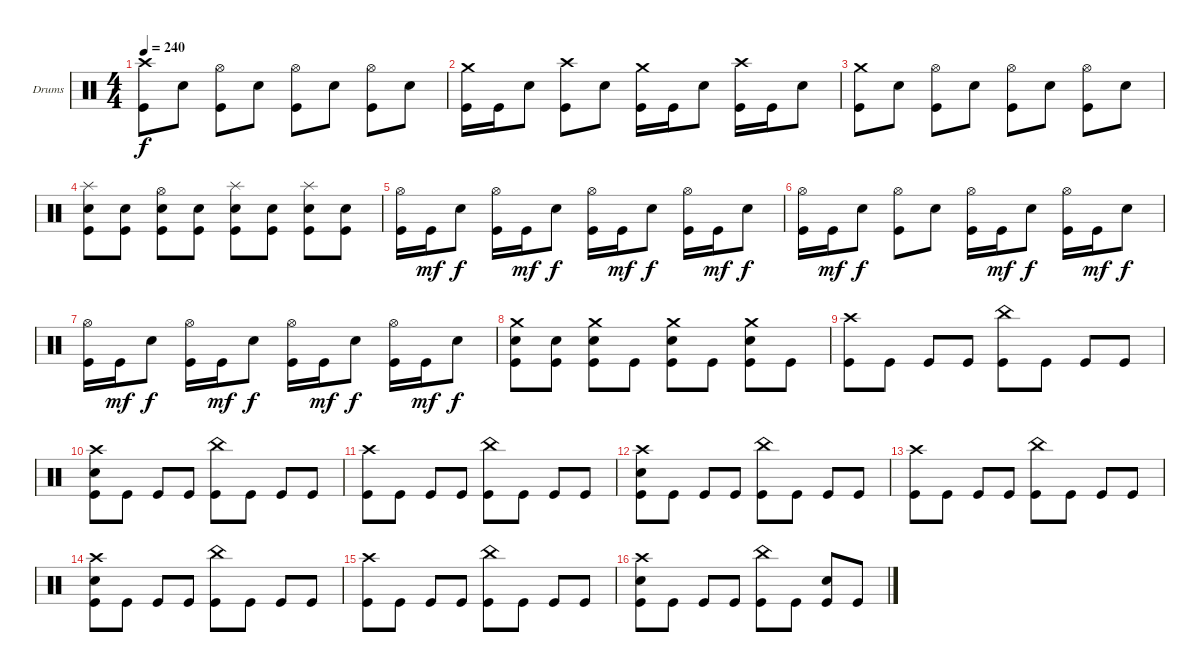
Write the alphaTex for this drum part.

\bracketExtendMode groupsimilarinstruments
\firstSystemTrackNameOrientation horizontal
\otherSystemsTrackNameOrientation horizontal
\track ("Drumkit" "Drums") {instrument percussion}
\staff {score}
\articulation defaults
\ts (4 4)
\tempo 240
\clef neutral
\ks c
("Crash high (hit)" "Kick (hit)").8{dy f} "Snare (hit) 2".8 ("Hi-Hat (open)" "Kick (hit)").8 "Snare (hit) 2".8 ("Hi-Hat (open)" "Kick (hit)").8 "Snare (hit) 2".8 ("Hi-Hat (open)" "Kick (hit)").8 "Snare (hit) 2".8 |
("Crash medium (hit)" "Kick (hit)").16 "Kick (hit)".16 "Snare (hit) 2".8 ("Crash high (hit)" "Kick (hit)").8 "Snare (hit) 2".8 ("Crash medium (hit)" "Kick (hit)").16 "Kick (hit)".16 "Snare (hit) 2".8 ("Crash high (hit)" "Kick (hit)").16 "Kick (hit)".16 "Snare (hit) 2".8 |
("Crash medium (hit)" "Kick (hit)").8 "Snare (hit) 2".8 ("Hi-Hat (open)" "Kick (hit)").8 "Snare (hit) 2".8 ("Hi-Hat (open)" "Kick (hit)").8 "Snare (hit) 2".8 ("Hi-Hat (open)" "Kick (hit)").8 "Snare (hit) 2".8 |
("Splash (hit)" "Snare (hit) 2" "Kick (hit)").8 ("Snare (hit) 2" "Kick (hit)").8 ("Hi-Hat (open)" "Snare (hit) 2" "Kick (hit)").8 ("Snare (hit) 2" "Kick (hit)").8 ("Splash (hit)" "Snare (hit) 2" "Kick (hit)").8 ("Snare (hit) 2" "Kick (hit)").8 ("Splash (hit)" "Snare (hit) 2" "Kick (hit)").8 ("Snare (hit) 2" "Kick (hit)").8 |
("Hi-Hat (open)" "Kick (hit)").16 "Kick (hit)".16{dy mf} "Snare (hit) 2".8{dy f} ("Hi-Hat (open)" "Kick (hit)").16 "Kick (hit)".16{dy mf} "Snare (hit) 2".8{dy f} ("Hi-Hat (open)" "Kick (hit)").16 "Kick (hit)".16{dy mf} "Snare (hit) 2".8{dy f} ("Hi-Hat (open)" "Kick (hit)").16 "Kick (hit)".16{dy mf} "Snare (hit) 2".8{dy f} |
("Hi-Hat (open)" "Kick (hit)").16 "Kick (hit)".16{dy mf} "Snare (hit) 2".8{dy f} ("Hi-Hat (open)" "Kick (hit)").8 "Snare (hit) 2".8 ("Hi-Hat (open)" "Kick (hit)").16 "Kick (hit)".16{dy mf} "Snare (hit) 2".8{dy f} ("Hi-Hat (open)" "Kick (hit)").16 "Kick (hit)".16{dy mf} "Snare (hit) 2".8{dy f} |
("Hi-Hat (open)" "Kick (hit)").16 "Kick (hit)".16{dy mf} "Snare (hit) 2".8{dy f} ("Hi-Hat (open)" "Kick (hit)").16 "Kick (hit)".16{dy mf} "Snare (hit) 2".8{dy f} ("Hi-Hat (open)" "Kick (hit)").16 "Kick (hit)".16{dy mf} "Snare (hit) 2".8{dy f} ("Hi-Hat (open)" "Kick (hit)").16 "Kick (hit)".16{dy mf} "Snare (hit) 2".8{dy f} |
("Crash medium (hit)" "Snare (hit) 2" "Kick (hit)").8 ("Snare (hit) 2" "Kick (hit)").8 ("Crash medium (hit)" "Snare (hit) 2" "Kick (hit)").8 "Kick (hit)".8 ("Crash medium (hit)" "Snare (hit) 2" "Kick (hit)").8 "Kick (hit)".8 ("Crash medium (hit)" "Snare (hit) 2" "Kick (hit)").8 "Kick (hit)".8 |
("Crash high (hit)" "Kick (hit)").8 "Kick (hit)".8 "Kick (hit)".8 "Kick (hit)".8 ("China (hit)" "Kick (hit)").8 "Kick (hit)".8 "Kick (hit)".8 "Kick (hit)".8 |
("Crash high (hit)" "Snare (hit) 2" "Kick (hit)").8 "Kick (hit)".8 "Kick (hit)".8 "Kick (hit)".8 ("China (hit)" "Kick (hit)").8 "Kick (hit)".8 "Kick (hit)".8 "Kick (hit)".8 |
("Crash high (hit)" "Kick (hit)").8 "Kick (hit)".8 "Kick (hit)".8 "Kick (hit)".8 ("China (hit)" "Kick (hit)").8 "Kick (hit)".8 "Kick (hit)".8 "Kick (hit)".8 |
("Crash high (hit)" "Snare (hit) 2" "Kick (hit)").8 "Kick (hit)".8 "Kick (hit)".8 "Kick (hit)".8 ("China (hit)" "Kick (hit)").8 "Kick (hit)".8 "Kick (hit)".8 "Kick (hit)".8 |
("Crash high (hit)" "Kick (hit)").8 "Kick (hit)".8 "Kick (hit)".8 "Kick (hit)".8 ("China (hit)" "Kick (hit)").8 "Kick (hit)".8 "Kick (hit)".8 "Kick (hit)".8 |
("Crash high (hit)" "Snare (hit) 2" "Kick (hit)").8 "Kick (hit)".8 "Kick (hit)".8 "Kick (hit)".8 ("China (hit)" "Kick (hit)").8 "Kick (hit)".8 "Kick (hit)".8 "Kick (hit)".8 |
("Crash high (hit)" "Kick (hit)").8 "Kick (hit)".8 "Kick (hit)".8 "Kick (hit)".8 ("China (hit)" "Kick (hit)").8 "Kick (hit)".8 "Kick (hit)".8 "Kick (hit)".8 |
("Crash high (hit)" "Snare (hit) 2" "Kick (hit)").8 "Kick (hit)".8 "Kick (hit)".8 "Kick (hit)".8 ("China (hit)" "Kick (hit)").8 "Kick (hit)".8 ("Snare (hit) 2" "Kick (hit)").8 "Kick (hit)".8
